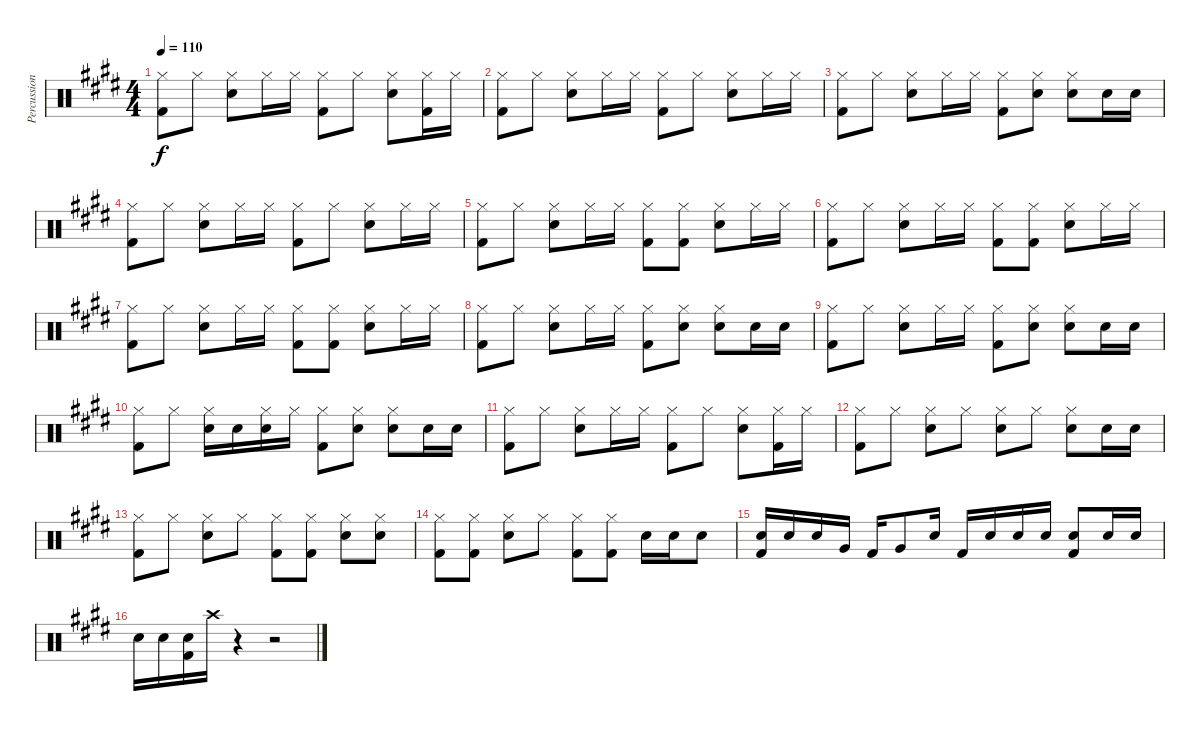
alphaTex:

\track ("Percussion" "Percussion") {instrument percussion}
\staff {score}
\articulation defaults
\ts (4 4)
\tempo 110
\clef neutral
\ks e
("Hi-Hat (closed)" "Kick (hit) 2").8{dy f} "Hi-Hat (closed)".8 ("Hi-Hat (closed)" "Snare (hit) 2").8 "Hi-Hat (closed)".16 "Hi-Hat (closed)".16 ("Hi-Hat (closed)" "Kick (hit) 2").8 "Hi-Hat (closed)".8 ("Hi-Hat (closed)" "Snare (hit) 2").8 ("Hi-Hat (closed)" "Kick (hit) 2").16 "Hi-Hat (closed)".16 |
("Hi-Hat (closed)" "Kick (hit) 2").8 "Hi-Hat (closed)".8 ("Hi-Hat (closed)" "Snare (hit) 2").8 "Hi-Hat (closed)".16 "Hi-Hat (closed)".16 ("Hi-Hat (closed)" "Kick (hit) 2").8 "Hi-Hat (closed)".8 ("Hi-Hat (closed)" "Snare (hit) 2").8 "Hi-Hat (closed)".16 "Hi-Hat (closed)".16 |
("Hi-Hat (closed)" "Kick (hit) 2").8 "Hi-Hat (closed)".8 ("Hi-Hat (closed)" "Snare (hit) 2").8 "Hi-Hat (closed)".16 "Hi-Hat (closed)".16 ("Hi-Hat (closed)" "Kick (hit) 2").8 ("Hi-Hat (closed)" "Snare (hit) 2").8 ("Hi-Hat (closed)" "Snare (hit) 2").8 "Snare (hit) 2".16 "Snare (hit) 2".16 |
("Hi-Hat (closed)" "Kick (hit) 2").8 "Hi-Hat (closed)".8 ("Hi-Hat (closed)" "Snare (hit) 2").8 "Hi-Hat (closed)".16 "Hi-Hat (closed)".16 ("Hi-Hat (closed)" "Kick (hit) 2").8 "Hi-Hat (closed)".8 ("Hi-Hat (closed)" "Snare (hit) 2").8 "Hi-Hat (closed)".16 "Hi-Hat (closed)".16 |
("Hi-Hat (closed)" "Kick (hit) 2").8 "Hi-Hat (closed)".8 ("Hi-Hat (closed)" "Snare (hit) 2").8 "Hi-Hat (closed)".16 "Hi-Hat (closed)".16 ("Hi-Hat (closed)" "Kick (hit) 2").8 ("Hi-Hat (closed)" "Kick (hit) 2").8 ("Hi-Hat (closed)" "Snare (hit) 2").8 "Hi-Hat (closed)".16 "Hi-Hat (closed)".16 |
("Hi-Hat (closed)" "Kick (hit) 2").8 "Hi-Hat (closed)".8 ("Hi-Hat (closed)" "Snare (hit) 2").8 "Hi-Hat (closed)".16 "Hi-Hat (closed)".16 ("Hi-Hat (closed)" "Kick (hit) 2").8 ("Hi-Hat (closed)" "Kick (hit) 2").8 ("Hi-Hat (closed)" "Snare (hit) 2").8 "Hi-Hat (closed)".16 "Hi-Hat (closed)".16 |
("Hi-Hat (closed)" "Kick (hit) 2").8 "Hi-Hat (closed)".8 ("Hi-Hat (closed)" "Snare (hit) 2").8 "Hi-Hat (closed)".16 "Hi-Hat (closed)".16 ("Hi-Hat (closed)" "Kick (hit) 2").8 ("Hi-Hat (closed)" "Kick (hit) 2").8 ("Hi-Hat (closed)" "Snare (hit) 2").8 "Hi-Hat (closed)".16 "Hi-Hat (closed)".16 |
("Hi-Hat (closed)" "Kick (hit) 2").8 "Hi-Hat (closed)".8 ("Hi-Hat (closed)" "Snare (hit) 2").8 "Hi-Hat (closed)".16 "Hi-Hat (closed)".16 ("Hi-Hat (closed)" "Kick (hit) 2").8 ("Hi-Hat (closed)" "Snare (hit) 2").8 ("Hi-Hat (closed)" "Snare (hit) 2").8 "Snare (hit) 2".16 "Snare (hit) 2".16 |
("Hi-Hat (closed)" "Kick (hit) 2").8 "Hi-Hat (closed)".8 ("Hi-Hat (closed)" "Snare (hit) 2").8 "Hi-Hat (closed)".16 "Hi-Hat (closed)".16 ("Hi-Hat (closed)" "Kick (hit) 2").8 ("Hi-Hat (closed)" "Snare (hit) 2").8 ("Hi-Hat (closed)" "Snare (hit) 2").8 "Snare (hit) 2".16 "Snare (hit) 2".16 |
("Hi-Hat (closed)" "Kick (hit) 2").8 "Hi-Hat (closed)".8 ("Hi-Hat (closed)" "Snare (hit) 2").16 "Snare (hit) 2".16 ("Hi-Hat (closed)" "Snare (hit) 2").16 "Hi-Hat (closed)".16 ("Hi-Hat (closed)" "Kick (hit) 2").8 ("Hi-Hat (closed)" "Snare (hit) 2").8 ("Hi-Hat (closed)" "Snare (hit) 2").8 "Snare (hit) 2".16 "Snare (hit) 2".16 |
("Hi-Hat (closed)" "Kick (hit) 2").8 "Hi-Hat (closed)".8 ("Hi-Hat (closed)" "Snare (hit) 2").8 "Hi-Hat (closed)".16 "Hi-Hat (closed)".16 ("Hi-Hat (closed)" "Kick (hit) 2").8 "Hi-Hat (closed)".8 ("Hi-Hat (closed)" "Snare (hit) 2").8 ("Hi-Hat (closed)" "Kick (hit) 2").16 "Hi-Hat (closed)".16 |
("Hi-Hat (closed)" "Kick (hit) 2").8 "Hi-Hat (closed)".8 ("Hi-Hat (closed)" "Snare (hit) 2").8 "Hi-Hat (closed)".8 ("Hi-Hat (closed)" "Snare (hit) 2").8 "Hi-Hat (closed)".8 ("Hi-Hat (closed)" "Snare (hit) 2").8 "Snare (hit) 2".16 "Snare (hit) 2".16 |
("Hi-Hat (closed)" "Kick (hit) 2").8 "Hi-Hat (closed)".8 ("Hi-Hat (closed)" "Snare (hit) 2").8 "Hi-Hat (closed)".8 ("Hi-Hat (closed)" "Kick (hit) 2").8 ("Hi-Hat (closed)" "Kick (hit) 2").8 ("Hi-Hat (closed)" "Snare (hit) 2").8 ("Hi-Hat (closed)" "Snare (hit) 2").8 |
("Hi-Hat (closed)" "Kick (hit) 2").8 ("Hi-Hat (closed)" "Kick (hit) 2").8 ("Hi-Hat (closed)" "Snare (hit) 2").8 "Hi-Hat (closed)".8 ("Hi-Hat (closed)" "Kick (hit) 2").8 ("Hi-Hat (closed)" "Kick (hit) 2").8 "Snare (hit) 2".16 "Snare (hit) 2".16 "Snare (hit) 2".8 |
("Snare (hit) 2" "Kick (hit) 2").16 "Snare (hit) 2".16 "Snare (hit) 2".16 "Very Low Tom (hit)".16 "Kick (hit) 2".16 "Very Low Tom (hit)".8 "Snare (hit) 2".16 "Kick (hit) 2".16 "Snare (hit) 2".16 "Snare (hit) 2".16 "Snare (hit) 2".16 ("Snare (hit) 2" "Kick (hit) 2").8 "Snare (hit) 2".16 "Snare (hit) 2".16 |
"Snare (hit) 2".16 "Snare (hit) 2".16 ("Snare (hit) 2" "Kick (hit) 2").16 "Crash high (hit)".16 r.4 r.2
